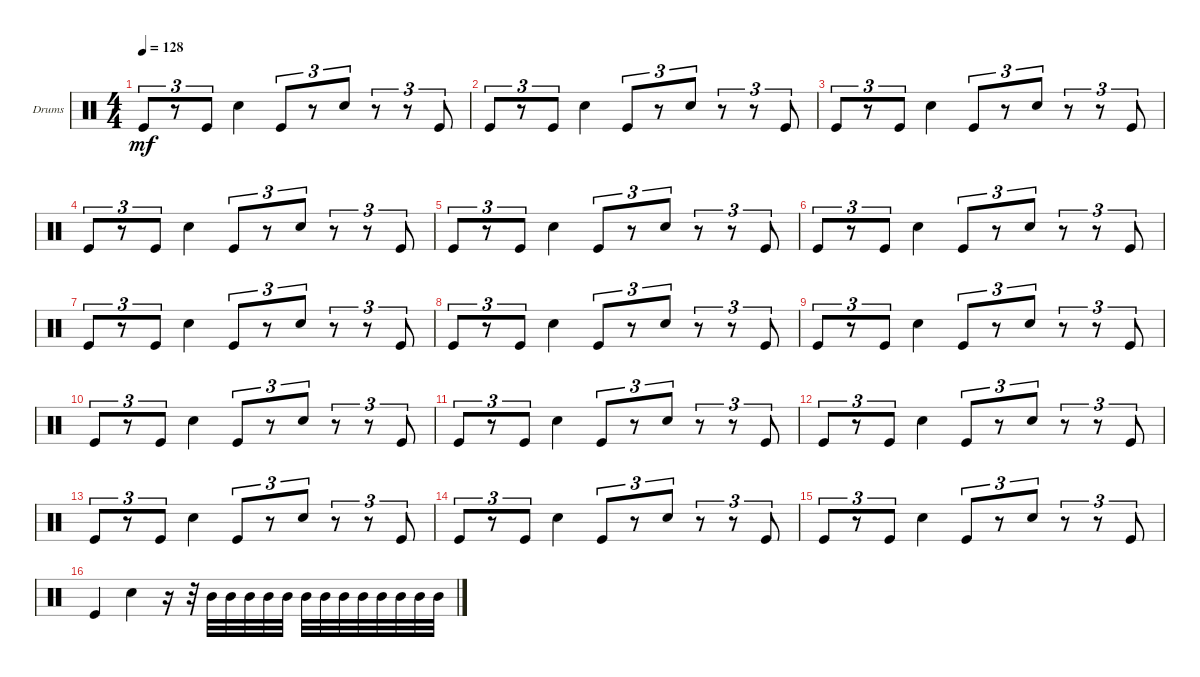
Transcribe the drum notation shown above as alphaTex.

\defaultSystemsLayout 4
\bracketExtendMode groupsimilarinstruments
\firstSystemTrackNameOrientation horizontal
\otherSystemsTrackNameOrientation horizontal
\track ("Drumkit" "Drums") {instrument percussion}
\staff {score}
\articulation defaults
\ts (4 4)
\tempo 128
\clef neutral
\scale
0.333333
\ks c "Kick (hit)".8{tu (3 2) dy mf}
r.8{tu (3 2)} "Kick (hit)".8{tu (3 2)} "Snare (hit) 2".4 "Kick (hit)".8{tu (3 2)} r.8{tu (3 2)} "Snare (hit) 2".8{tu (3 2)} r.8{tu (3 2)} r.8{tu (3 2)} "Kick (hit)".8{tu (3 2)} |
\scale
0.333333 "Kick (hit)".8{tu (3 2)} r.8{tu (3 2)} "Kick (hit)".8{tu (3 2)} "Snare (hit) 2".4 "Kick (hit)".8{tu (3 2)} r.8{tu (3 2)} "Snare (hit) 2".8{tu (3 2)} r.8{tu (3 2)} r.8{tu (3 2)} "Kick (hit)".8{tu (3 2)} |
\scale
0.333333 "Kick (hit)".8{tu (3 2)} r.8{tu (3 2)} "Kick (hit)".8{tu (3 2)} "Snare (hit) 2".4 "Kick (hit)".8{tu (3 2)} r.8{tu (3 2)} "Snare (hit) 2".8{tu (3 2)} r.8{tu (3 2)} r.8{tu (3 2)} "Kick (hit)".8{tu (3 2)} |
\scale
0.333333 "Kick (hit)".8{tu (3 2)} r.8{tu (3 2)} "Kick (hit)".8{tu (3 2)} "Snare (hit) 2".4 "Kick (hit)".8{tu (3 2)} r.8{tu (3 2)} "Snare (hit) 2".8{tu (3 2)} r.8{tu (3 2)} r.8{tu (3 2)} "Kick (hit)".8{tu (3 2)} |
\scale
0.333333 "Kick (hit)".8{tu (3 2)} r.8{tu (3 2)} "Kick (hit)".8{tu (3 2)} "Snare (hit) 2".4 "Kick (hit)".8{tu (3 2)} r.8{tu (3 2)} "Snare (hit) 2".8{tu (3 2)} r.8{tu (3 2)} r.8{tu (3 2)} "Kick (hit)".8{tu (3 2)} |
\scale
0.333333 "Kick (hit)".8{tu (3 2)} r.8{tu (3 2)} "Kick (hit)".8{tu (3 2)} "Snare (hit) 2".4 "Kick (hit)".8{tu (3 2)} r.8{tu (3 2)} "Snare (hit) 2".8{tu (3 2)} r.8{tu (3 2)} r.8{tu (3 2)} "Kick (hit)".8{tu (3 2)} |
\scale
0.333333 "Kick (hit)".8{tu (3 2)} r.8{tu (3 2)} "Kick (hit)".8{tu (3 2)} "Snare (hit) 2".4 "Kick (hit)".8{tu (3 2)} r.8{tu (3 2)} "Snare (hit) 2".8{tu (3 2)} r.8{tu (3 2)} r.8{tu (3 2)} "Kick (hit)".8{tu (3 2)} |
\scale
0.333333 "Kick (hit)".8{tu (3 2)} r.8{tu (3 2)} "Kick (hit)".8{tu (3 2)} "Snare (hit) 2".4 "Kick (hit)".8{tu (3 2)} r.8{tu (3 2)} "Snare (hit) 2".8{tu (3 2)} r.8{tu (3 2)} r.8{tu (3 2)} "Kick (hit)".8{tu (3 2)} |
\scale
0.333333 "Kick (hit)".8{tu (3 2)} r.8{tu (3 2)} "Kick (hit)".8{tu (3 2)} "Snare (hit) 2".4 "Kick (hit)".8{tu (3 2)} r.8{tu (3 2)} "Snare (hit) 2".8{tu (3 2)} r.8{tu (3 2)} r.8{tu (3 2)} "Kick (hit)".8{tu (3 2)} |
\scale
0.333333 "Kick (hit)".8{tu (3 2)} r.8{tu (3 2)} "Kick (hit)".8{tu (3 2)} "Snare (hit) 2".4 "Kick (hit)".8{tu (3 2)} r.8{tu (3 2)} "Snare (hit) 2".8{tu (3 2)} r.8{tu (3 2)} r.8{tu (3 2)} "Kick (hit)".8{tu (3 2)} |
\scale
0.333333 "Kick (hit)".8{tu (3 2)} r.8{tu (3 2)} "Kick (hit)".8{tu (3 2)} "Snare (hit) 2".4 "Kick (hit)".8{tu (3 2)} r.8{tu (3 2)} "Snare (hit) 2".8{tu (3 2)} r.8{tu (3 2)} r.8{tu (3 2)} "Kick (hit)".8{tu (3 2)} |
\scale
0.333333 "Kick (hit)".8{tu (3 2)} r.8{tu (3 2)} "Kick (hit)".8{tu (3 2)} "Snare (hit) 2".4 "Kick (hit)".8{tu (3 2)} r.8{tu (3 2)} "Snare (hit) 2".8{tu (3 2)} r.8{tu (3 2)} r.8{tu (3 2)} "Kick (hit)".8{tu (3 2)} |
\scale
0.333333 "Kick (hit)".8{tu (3 2)} r.8{tu (3 2)} "Kick (hit)".8{tu (3 2)} "Snare (hit) 2".4 "Kick (hit)".8{tu (3 2)} r.8{tu (3 2)} "Snare (hit) 2".8{tu (3 2)} r.8{tu (3 2)} r.8{tu (3 2)} "Kick (hit)".8{tu (3 2)} |
\scale
0.333333 "Kick (hit)".8{tu (3 2)} r.8{tu (3 2)} "Kick (hit)".8{tu (3 2)} "Snare (hit) 2".4 "Kick (hit)".8{tu (3 2)} r.8{tu (3 2)} "Snare (hit) 2".8{tu (3 2)} r.8{tu (3 2)} r.8{tu (3 2)} "Kick (hit)".8{tu (3 2)} |
\scale
0.333333 "Kick (hit)".8{tu (3 2)} r.8{tu (3 2)} "Kick (hit)".8{tu (3 2)} "Snare (hit) 2".4 "Kick (hit)".8{tu (3 2)} r.8{tu (3 2)} "Snare (hit) 2".8{tu (3 2)} r.8{tu (3 2)} r.8{tu (3 2)} "Kick (hit)".8{tu (3 2)} |
\scale
0.333333 "Kick (hit)".4 "Snare (hit) 2".4 r.16 r.32 "Mid Tom (hit)".32 "Mid Tom (hit)".32 "Mid Tom (hit)".32 "Mid Tom (hit)".32 "Mid Tom (hit)".32 "Mid Tom (hit)".32 "Mid Tom (hit)".32 "Mid Tom (hit)".32 "Mid Tom (hit)".32 "Mid Tom (hit)".32 "Mid Tom (hit)".32 "Mid Tom (hit)".32 "Mid Tom (hit)".32
